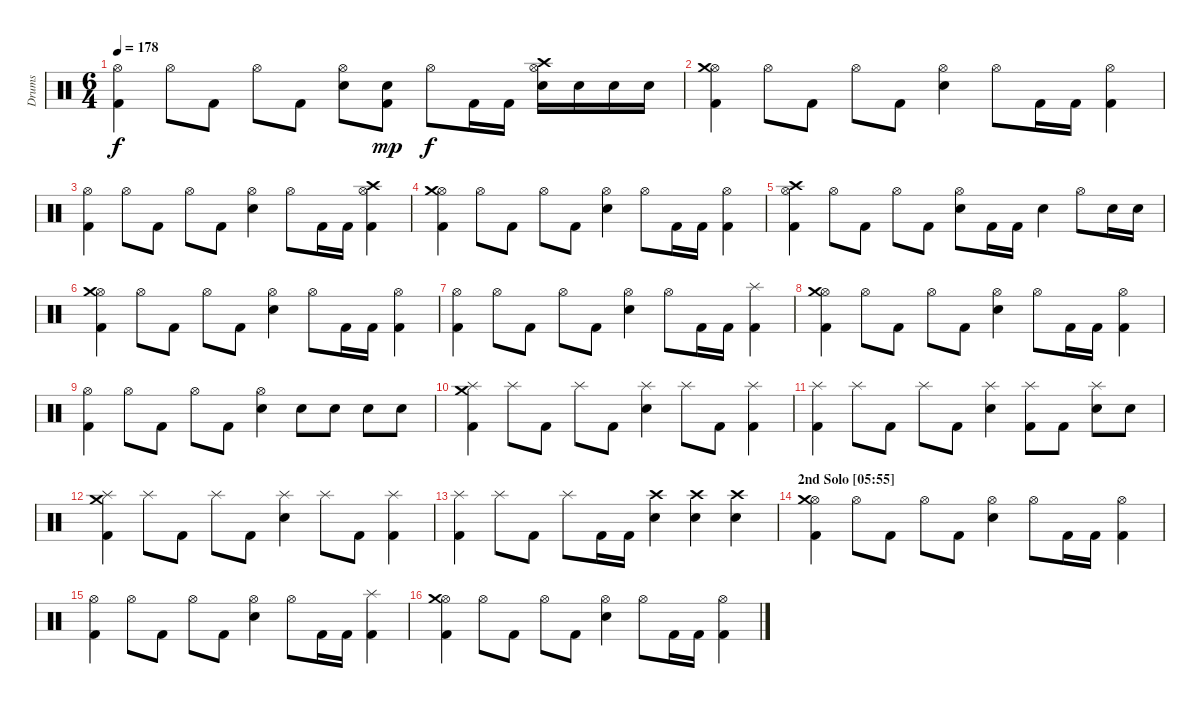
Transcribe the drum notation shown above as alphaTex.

\track ("Drums" "Drums") {instrument percussion}
\staff {score}
\articulation defaults
\ts (6 4)
\tempo 178
\clef neutral
\ks c
("Hi-Hat (open)" "Kick (hit) 2").4{dy f} "Hi-Hat (open)".8 "Kick (hit) 2".8 "Hi-Hat (open)".8 "Kick (hit) 2".8 ("Hi-Hat (open)" "Electric Snare (hit)").8 ("Snare (hit) 2" "Kick (hit) 2").8{dy mp} "Hi-Hat (open)".8{dy f} "Kick (hit) 2".16 "Kick (hit) 2".16 ("Hi-Hat (open)" "Crash high (hit)" "Electric Snare (hit)").16 "Electric Snare (hit)".16 "Electric Snare (hit)".16 "Electric Snare (hit)".16 |
("Hi-Hat (open)" "Crash medium (hit)" "Kick (hit) 2").4 "Hi-Hat (open)".8 "Kick (hit) 2".8 "Hi-Hat (open)".8 "Kick (hit) 2".8 ("Hi-Hat (open)" "Electric Snare (hit)").4 "Hi-Hat (open)".8 "Kick (hit) 2".16 "Kick (hit) 2".16 ("Hi-Hat (open)" "Kick (hit) 2").4 |
("Hi-Hat (open)" "Kick (hit) 2").4 "Hi-Hat (open)".8 "Kick (hit) 2".8 "Hi-Hat (open)".8 "Kick (hit) 2".8 ("Hi-Hat (open)" "Electric Snare (hit)").4 "Hi-Hat (open)".8 "Kick (hit) 2".16 "Kick (hit) 2".16 ("Hi-Hat (open)" "Crash high (hit)" "Kick (hit) 2").4 |
("Hi-Hat (open)" "Crash medium (hit)" "Kick (hit) 2").4 "Hi-Hat (open)".8 "Kick (hit) 2".8 "Hi-Hat (open)".8 "Kick (hit) 2".8 ("Hi-Hat (open)" "Electric Snare (hit)").4 "Hi-Hat (open)".8 "Kick (hit) 2".16 "Kick (hit) 2".16 ("Hi-Hat (open)" "Kick (hit) 2").4 |
("Hi-Hat (open)" "Crash high (hit)" "Kick (hit) 2").4 "Hi-Hat (open)".8 "Kick (hit) 2".8 "Hi-Hat (open)".8 "Kick (hit) 2".8 ("Hi-Hat (open)" "Electric Snare (hit)").8 "Kick (hit) 2".16 "Kick (hit) 2".16 "Electric Snare (hit)".4 "Hi-Hat (open)".8 "Electric Snare (hit)".16 "Electric Snare (hit)".16 |
\section ("" "")
("Hi-Hat (open)" "Crash medium (hit)" "Kick (hit) 2").4 "Hi-Hat (open)".8 "Kick (hit) 2".8 "Hi-Hat (open)".8 "Kick (hit) 2".8 ("Hi-Hat (open)" "Electric Snare (hit)").4 "Hi-Hat (open)".8 "Kick (hit) 2".16 "Kick (hit) 2".16 ("Hi-Hat (open)" "Kick (hit) 2").4 |
("Hi-Hat (open)" "Kick (hit) 2").4 "Hi-Hat (open)".8 "Kick (hit) 2".8 "Hi-Hat (open)".8 "Kick (hit) 2".8 ("Hi-Hat (open)" "Electric Snare (hit)").4 "Hi-Hat (open)".8 "Kick (hit) 2".16 "Kick (hit) 2".16 ("Splash (hit)" "Kick (hit) 2").4 |
("Hi-Hat (open)" "Crash medium (hit)" "Kick (hit) 2").4 "Hi-Hat (open)".8 "Kick (hit) 2".8 "Hi-Hat (open)".8 "Kick (hit) 2".8 ("Hi-Hat (open)" "Electric Snare (hit)").4 "Hi-Hat (open)".8 "Kick (hit) 2".16 "Kick (hit) 2".16 ("Hi-Hat (open)" "Kick (hit) 2").4 |
("Hi-Hat (open)" "Kick (hit) 2").4 "Hi-Hat (open)".8 "Kick (hit) 2".8 "Hi-Hat (open)".8 "Kick (hit) 2".8 ("Hi-Hat (open)" "Electric Snare (hit)").4 "Electric Snare (hit)".8 "Electric Snare (hit)".8 "Electric Snare (hit)".8 "Electric Snare (hit)".8 |
("Splash (hit)" "Crash medium (hit)" "Kick (hit) 2").4 "Splash (hit)".8 "Kick (hit) 2".8 "Splash (hit)".8 "Kick (hit) 2".8 ("Splash (hit)" "Electric Snare (hit)").4 "Splash (hit)".8 "Kick (hit) 2".8 ("Splash (hit)" "Kick (hit) 2").4 |
("Splash (hit)" "Kick (hit) 2").4 "Splash (hit)".8 "Kick (hit) 2".8 "Splash (hit)".8 "Kick (hit) 2".8 ("Splash (hit)" "Electric Snare (hit)").4 ("Splash (hit)" "Kick (hit) 2").8 "Kick (hit) 2".8 ("Splash (hit)" "Electric Snare (hit)").8 "Electric Snare (hit)".8 |
("Splash (hit)" "Crash medium (hit)" "Kick (hit) 2").4 "Splash (hit)".8 "Kick (hit) 2".8 "Splash (hit)".8 "Kick (hit) 2".8 ("Splash (hit)" "Electric Snare (hit)").4 "Splash (hit)".8 "Kick (hit) 2".8 ("Splash (hit)" "Kick (hit) 2").4 |
("Splash (hit)" "Kick (hit) 2").4 "Splash (hit)".8 "Kick (hit) 2".8 "Splash (hit)".8 "Kick (hit) 2".16 "Kick (hit) 2".16 ("Crash high (hit)" "Electric Snare (hit)").4 ("Crash high (hit)" "Electric Snare (hit)").4 ("Crash high (hit)" "Electric Snare (hit)").4 |
\section ("" "2nd Solo [05:55]")
("Hi-Hat (open)" "Crash medium (hit)" "Kick (hit) 2").4 "Hi-Hat (open)".8 "Kick (hit) 2".8 "Hi-Hat (open)".8 "Kick (hit) 2".8 ("Hi-Hat (open)" "Electric Snare (hit)").4 "Hi-Hat (open)".8 "Kick (hit) 2".16 "Kick (hit) 2".16 ("Hi-Hat (open)" "Kick (hit) 2").4 |
("Hi-Hat (open)" "Kick (hit) 2").4 "Hi-Hat (open)".8 "Kick (hit) 2".8 "Hi-Hat (open)".8 "Kick (hit) 2".8 ("Hi-Hat (open)" "Electric Snare (hit)").4 "Hi-Hat (open)".8 "Kick (hit) 2".16 "Kick (hit) 2".16 ("Splash (hit)" "Kick (hit) 2").4 |
("Hi-Hat (open)" "Crash medium (hit)" "Kick (hit) 2").4 "Hi-Hat (open)".8 "Kick (hit) 2".8 "Hi-Hat (open)".8 "Kick (hit) 2".8 ("Hi-Hat (open)" "Electric Snare (hit)").4 "Hi-Hat (open)".8 "Kick (hit) 2".16 "Kick (hit) 2".16 ("Hi-Hat (open)" "Kick (hit) 2").4
